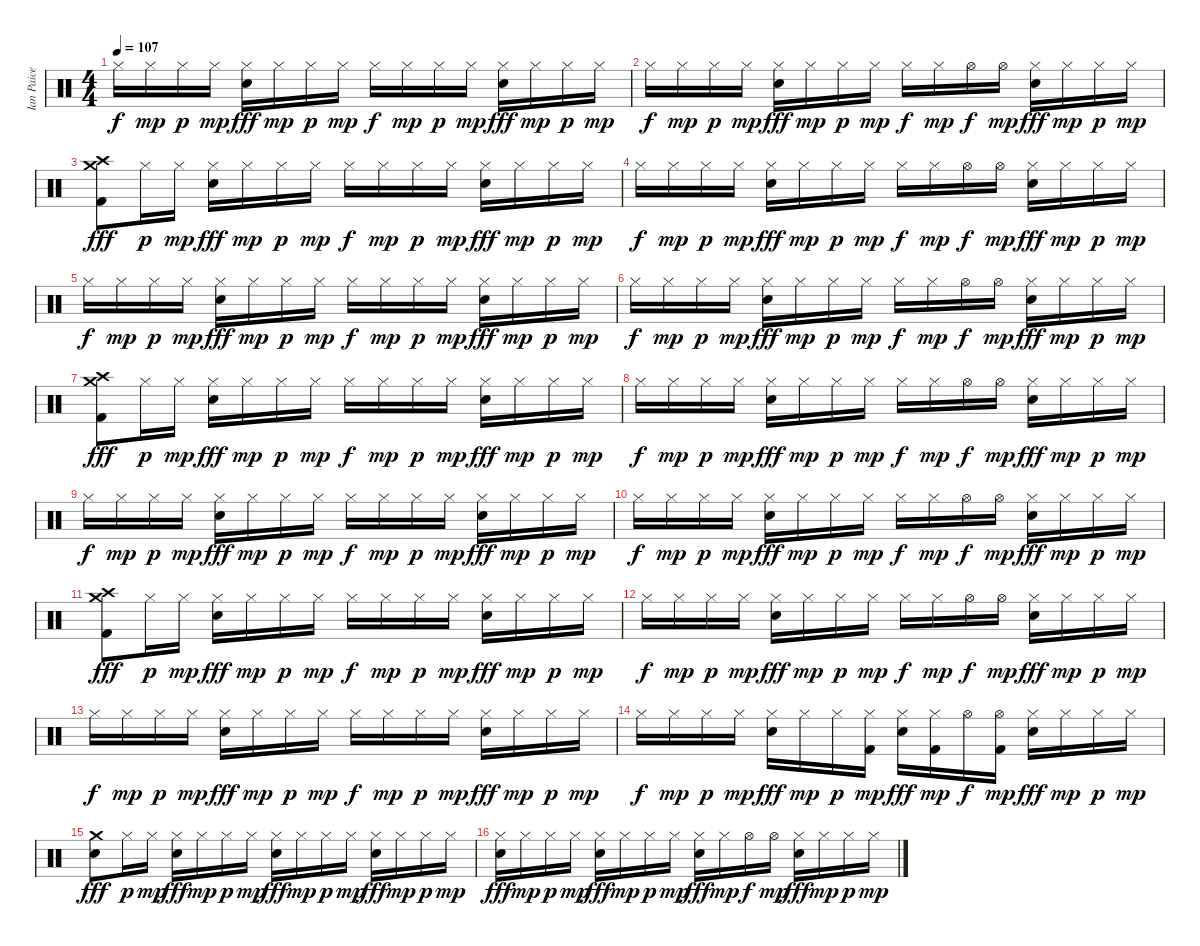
\track ("Ian Paice" "Ian Paice") {instrument percussion}
\staff {score}
\articulation defaults
\ts (4 4)
\tempo 107
\clef neutral
\ks c "Hi-Hat (closed)".16{dy f} "Hi-Hat (closed)".16{dy mp} "Hi-Hat (closed)".16{dy p} "Hi-Hat (closed)".16{dy mp}
("Hi-Hat (closed)" "Electric Snare (hit)").16{dy fff} "Hi-Hat (closed)".16{dy mp} "Hi-Hat (closed)".16{dy p} "Hi-Hat (closed)".16{dy mp} "Hi-Hat (closed)".16{dy f} "Hi-Hat (closed)".16{dy mp} "Hi-Hat (closed)".16{dy p} "Hi-Hat (closed)".16{dy mp} ("Hi-Hat (closed)" "Electric Snare (hit)").16{dy fff} "Hi-Hat (closed)".16{dy mp} "Hi-Hat (closed)".16{dy p} "Hi-Hat (closed)".16{dy mp} |
"Hi-Hat (closed)".16{dy f} "Hi-Hat (closed)".16{dy mp} "Hi-Hat (closed)".16{dy p} "Hi-Hat (closed)".16{dy mp} ("Hi-Hat (closed)" "Electric Snare (hit)").16{dy fff} "Hi-Hat (closed)".16{dy mp} "Hi-Hat (closed)".16{dy p} "Hi-Hat (closed)".16{dy mp} "Hi-Hat (closed)".16{dy f} "Hi-Hat (closed)".16{dy mp} "Hi-Hat (open)".16{dy f} "Hi-Hat (open)".16{dy mp} ("Hi-Hat (closed)" "Electric Snare (hit)").16{dy fff} "Hi-Hat (closed)".16{dy mp} "Hi-Hat (closed)".16{dy p} "Hi-Hat (closed)".16{dy mp} |
("Crash medium (hit)" "Crash high (hit)" "Kick (hit) 2").8{dy fff} "Hi-Hat (closed)".16{dy p} "Hi-Hat (closed)".16{dy mp} ("Hi-Hat (closed)" "Electric Snare (hit)").16{dy fff} "Hi-Hat (closed)".16{dy mp} "Hi-Hat (closed)".16{dy p} "Hi-Hat (closed)".16{dy mp} "Hi-Hat (closed)".16{dy f} "Hi-Hat (closed)".16{dy mp} "Hi-Hat (closed)".16{dy p} "Hi-Hat (closed)".16{dy mp} ("Hi-Hat (closed)" "Electric Snare (hit)").16{dy fff} "Hi-Hat (closed)".16{dy mp} "Hi-Hat (closed)".16{dy p} "Hi-Hat (closed)".16{dy mp} |
"Hi-Hat (closed)".16{dy f} "Hi-Hat (closed)".16{dy mp} "Hi-Hat (closed)".16{dy p} "Hi-Hat (closed)".16{dy mp} ("Hi-Hat (closed)" "Electric Snare (hit)").16{dy fff} "Hi-Hat (closed)".16{dy mp} "Hi-Hat (closed)".16{dy p} "Hi-Hat (closed)".16{dy mp} "Hi-Hat (closed)".16{dy f} "Hi-Hat (closed)".16{dy mp} "Hi-Hat (open)".16{dy f} "Hi-Hat (open)".16{dy mp} ("Hi-Hat (closed)" "Electric Snare (hit)").16{dy fff} "Hi-Hat (closed)".16{dy mp} "Hi-Hat (closed)".16{dy p} "Hi-Hat (closed)".16{dy mp} |
"Hi-Hat (closed)".16{dy f} "Hi-Hat (closed)".16{dy mp} "Hi-Hat (closed)".16{dy p} "Hi-Hat (closed)".16{dy mp} ("Hi-Hat (closed)" "Electric Snare (hit)").16{dy fff} "Hi-Hat (closed)".16{dy mp} "Hi-Hat (closed)".16{dy p} "Hi-Hat (closed)".16{dy mp} "Hi-Hat (closed)".16{dy f} "Hi-Hat (closed)".16{dy mp} "Hi-Hat (closed)".16{dy p} "Hi-Hat (closed)".16{dy mp} ("Hi-Hat (closed)" "Electric Snare (hit)").16{dy fff} "Hi-Hat (closed)".16{dy mp} "Hi-Hat (closed)".16{dy p} "Hi-Hat (closed)".16{dy mp} |
"Hi-Hat (closed)".16{dy f} "Hi-Hat (closed)".16{dy mp} "Hi-Hat (closed)".16{dy p} "Hi-Hat (closed)".16{dy mp} ("Hi-Hat (closed)" "Electric Snare (hit)").16{dy fff} "Hi-Hat (closed)".16{dy mp} "Hi-Hat (closed)".16{dy p} "Hi-Hat (closed)".16{dy mp} "Hi-Hat (closed)".16{dy f} "Hi-Hat (closed)".16{dy mp} "Hi-Hat (open)".16{dy f} "Hi-Hat (open)".16{dy mp} ("Hi-Hat (closed)" "Electric Snare (hit)").16{dy fff} "Hi-Hat (closed)".16{dy mp} "Hi-Hat (closed)".16{dy p} "Hi-Hat (closed)".16{dy mp} |
("Crash medium (hit)" "Crash high (hit)" "Kick (hit) 2").8{dy fff} "Hi-Hat (closed)".16{dy p} "Hi-Hat (closed)".16{dy mp} ("Hi-Hat (closed)" "Electric Snare (hit)").16{dy fff} "Hi-Hat (closed)".16{dy mp} "Hi-Hat (closed)".16{dy p} "Hi-Hat (closed)".16{dy mp} "Hi-Hat (closed)".16{dy f} "Hi-Hat (closed)".16{dy mp} "Hi-Hat (closed)".16{dy p} "Hi-Hat (closed)".16{dy mp} ("Hi-Hat (closed)" "Electric Snare (hit)").16{dy fff} "Hi-Hat (closed)".16{dy mp} "Hi-Hat (closed)".16{dy p} "Hi-Hat (closed)".16{dy mp} |
"Hi-Hat (closed)".16{dy f} "Hi-Hat (closed)".16{dy mp} "Hi-Hat (closed)".16{dy p} "Hi-Hat (closed)".16{dy mp} ("Hi-Hat (closed)" "Electric Snare (hit)").16{dy fff} "Hi-Hat (closed)".16{dy mp} "Hi-Hat (closed)".16{dy p} "Hi-Hat (closed)".16{dy mp} "Hi-Hat (closed)".16{dy f} "Hi-Hat (closed)".16{dy mp} "Hi-Hat (open)".16{dy f} "Hi-Hat (open)".16{dy mp} ("Hi-Hat (closed)" "Electric Snare (hit)").16{dy fff} "Hi-Hat (closed)".16{dy mp} "Hi-Hat (closed)".16{dy p} "Hi-Hat (closed)".16{dy mp} |
"Hi-Hat (closed)".16{dy f} "Hi-Hat (closed)".16{dy mp} "Hi-Hat (closed)".16{dy p} "Hi-Hat (closed)".16{dy mp} ("Hi-Hat (closed)" "Electric Snare (hit)").16{dy fff} "Hi-Hat (closed)".16{dy mp} "Hi-Hat (closed)".16{dy p} "Hi-Hat (closed)".16{dy mp} "Hi-Hat (closed)".16{dy f} "Hi-Hat (closed)".16{dy mp} "Hi-Hat (closed)".16{dy p} "Hi-Hat (closed)".16{dy mp} ("Hi-Hat (closed)" "Electric Snare (hit)").16{dy fff} "Hi-Hat (closed)".16{dy mp} "Hi-Hat (closed)".16{dy p} "Hi-Hat (closed)".16{dy mp} |
"Hi-Hat (closed)".16{dy f} "Hi-Hat (closed)".16{dy mp} "Hi-Hat (closed)".16{dy p} "Hi-Hat (closed)".16{dy mp} ("Hi-Hat (closed)" "Electric Snare (hit)").16{dy fff} "Hi-Hat (closed)".16{dy mp} "Hi-Hat (closed)".16{dy p} "Hi-Hat (closed)".16{dy mp} "Hi-Hat (closed)".16{dy f} "Hi-Hat (closed)".16{dy mp} "Hi-Hat (open)".16{dy f} "Hi-Hat (open)".16{dy mp} ("Hi-Hat (closed)" "Electric Snare (hit)").16{dy fff} "Hi-Hat (closed)".16{dy mp} "Hi-Hat (closed)".16{dy p} "Hi-Hat (closed)".16{dy mp} |
("Crash medium (hit)" "Crash high (hit)" "Kick (hit) 2").8{dy fff} "Hi-Hat (closed)".16{dy p} "Hi-Hat (closed)".16{dy mp} ("Hi-Hat (closed)" "Electric Snare (hit)").16{dy fff} "Hi-Hat (closed)".16{dy mp} "Hi-Hat (closed)".16{dy p} "Hi-Hat (closed)".16{dy mp} "Hi-Hat (closed)".16{dy f} "Hi-Hat (closed)".16{dy mp} "Hi-Hat (closed)".16{dy p} "Hi-Hat (closed)".16{dy mp} ("Hi-Hat (closed)" "Electric Snare (hit)").16{dy fff} "Hi-Hat (closed)".16{dy mp} "Hi-Hat (closed)".16{dy p} "Hi-Hat (closed)".16{dy mp} |
"Hi-Hat (closed)".16{dy f} "Hi-Hat (closed)".16{dy mp} "Hi-Hat (closed)".16{dy p} "Hi-Hat (closed)".16{dy mp} ("Hi-Hat (closed)" "Electric Snare (hit)").16{dy fff} "Hi-Hat (closed)".16{dy mp} "Hi-Hat (closed)".16{dy p} "Hi-Hat (closed)".16{dy mp} "Hi-Hat (closed)".16{dy f} "Hi-Hat (closed)".16{dy mp} "Hi-Hat (open)".16{dy f} "Hi-Hat (open)".16{dy mp} ("Hi-Hat (closed)" "Electric Snare (hit)").16{dy fff} "Hi-Hat (closed)".16{dy mp} "Hi-Hat (closed)".16{dy p} "Hi-Hat (closed)".16{dy mp} |
"Hi-Hat (closed)".16{dy f} "Hi-Hat (closed)".16{dy mp} "Hi-Hat (closed)".16{dy p} "Hi-Hat (closed)".16{dy mp} ("Hi-Hat (closed)" "Electric Snare (hit)").16{dy fff} "Hi-Hat (closed)".16{dy mp} "Hi-Hat (closed)".16{dy p} "Hi-Hat (closed)".16{dy mp} "Hi-Hat (closed)".16{dy f} "Hi-Hat (closed)".16{dy mp} "Hi-Hat (closed)".16{dy p} "Hi-Hat (closed)".16{dy mp} ("Hi-Hat (closed)" "Electric Snare (hit)").16{dy fff} "Hi-Hat (closed)".16{dy mp} "Hi-Hat (closed)".16{dy p} "Hi-Hat (closed)".16{dy mp} |
"Hi-Hat (closed)".16{dy f} "Hi-Hat (closed)".16{dy mp} "Hi-Hat (closed)".16{dy p} "Hi-Hat (closed)".16{dy mp} ("Hi-Hat (closed)" "Electric Snare (hit)").16{dy fff} "Hi-Hat (closed)".16{dy mp} "Hi-Hat (closed)".16{dy p} ("Hi-Hat (closed)" "Kick (hit) 2").16{dy mp} ("Hi-Hat (closed)" "Electric Snare (hit)").16{dy fff} ("Hi-Hat (closed)" "Kick (hit) 2").16{dy mp} "Hi-Hat (open)".16{dy f} ("Hi-Hat (open)" "Kick (hit) 2").16{dy mp} ("Hi-Hat (closed)" "Electric Snare (hit)").16{dy fff} "Hi-Hat (closed)".16{dy mp} "Hi-Hat (closed)".16{dy p} "Hi-Hat (closed)".16{dy mp} |
("Crash medium (hit)" "Electric Snare (hit)").8{dy fff} "Hi-Hat (closed)".16{dy p} "Hi-Hat (closed)".16{dy mp} ("Hi-Hat (closed)" "Electric Snare (hit)").16{dy fff} "Hi-Hat (closed)".16{dy mp} "Hi-Hat (closed)".16{dy p} "Hi-Hat (closed)".16{dy mp} ("Hi-Hat (closed)" "Electric Snare (hit)").16{dy fff} "Hi-Hat (closed)".16{dy mp} "Hi-Hat (closed)".16{dy p} "Hi-Hat (closed)".16{dy mp} ("Hi-Hat (closed)" "Electric Snare (hit)").16{dy fff} "Hi-Hat (closed)".16{dy mp} "Hi-Hat (closed)".16{dy p} "Hi-Hat (closed)".16{dy mp} |
("Hi-Hat (closed)" "Electric Snare (hit)").16{dy fff} "Hi-Hat (closed)".16{dy mp} "Hi-Hat (closed)".16{dy p} "Hi-Hat (closed)".16{dy mp} ("Hi-Hat (closed)" "Electric Snare (hit)").16{dy fff} "Hi-Hat (closed)".16{dy mp} "Hi-Hat (closed)".16{dy p} "Hi-Hat (closed)".16{dy mp} ("Hi-Hat (closed)" "Electric Snare (hit)").16{dy fff} "Hi-Hat (closed)".16{dy mp} "Hi-Hat (open)".16{dy f} "Hi-Hat (open)".16{dy mp} ("Hi-Hat (closed)" "Electric Snare (hit)").16{dy fff} "Hi-Hat (closed)".16{dy mp} "Hi-Hat (closed)".16{dy p} "Hi-Hat (closed)".16{dy mp}
